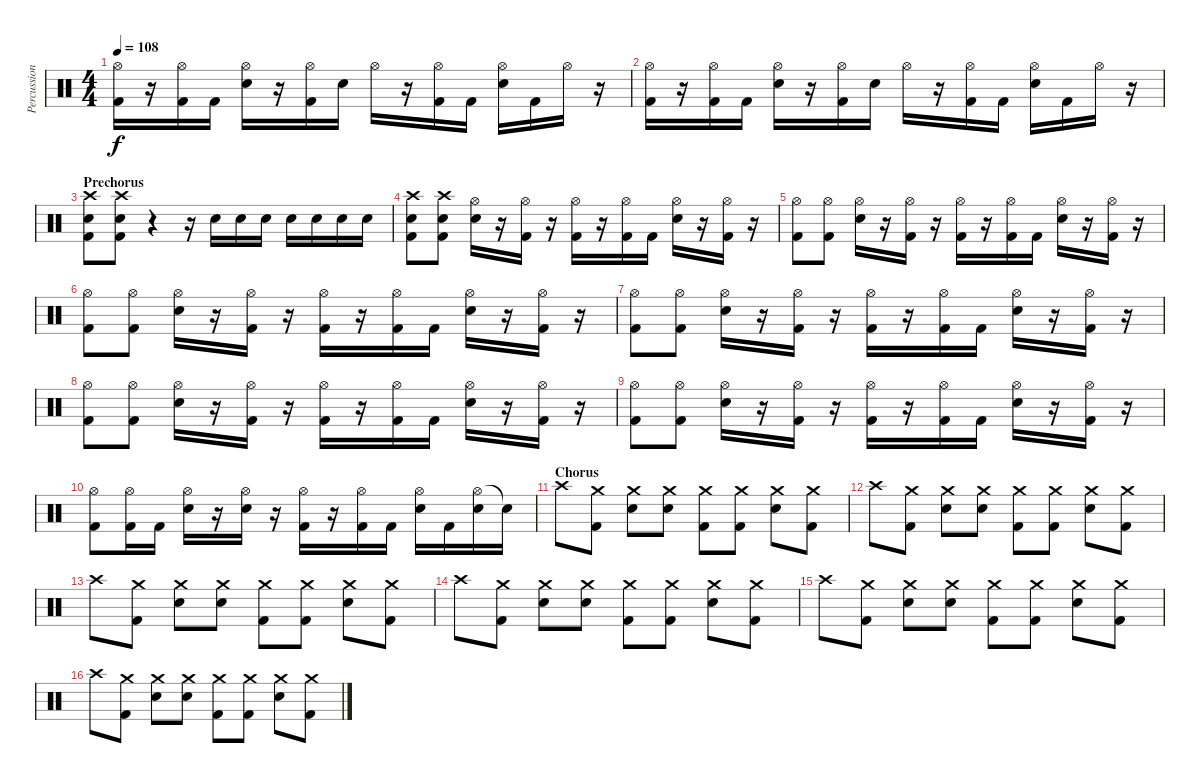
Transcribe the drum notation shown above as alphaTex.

\track ("Percussion" "Percussion") {instrument percussion}
\staff {score}
\articulation defaults
\ts (4 4)
\tempo 108
\clef neutral
\ks c
("Hi-Hat (open)" "Kick (hit) 2").16{dy f} r.16 ("Hi-Hat (open)" "Kick (hit) 2").16 "Kick (hit) 2".16 ("Hi-Hat (open)" "Snare (hit) 2").16 r.16 ("Hi-Hat (open)" "Kick (hit) 2").16 "Snare (hit) 2".16 "Hi-Hat (open)".16 r.16 ("Hi-Hat (open)" "Kick (hit) 2").16 "Kick (hit) 2".16 ("Hi-Hat (open)" "Snare (hit) 2").16 "Kick (hit) 2".16 "Hi-Hat (open)".16 r.16 |
("Hi-Hat (open)" "Kick (hit) 2").16 r.16 ("Hi-Hat (open)" "Kick (hit) 2").16 "Kick (hit) 2".16 ("Hi-Hat (open)" "Snare (hit) 2").16 r.16 ("Hi-Hat (open)" "Kick (hit) 2").16 "Snare (hit) 2".16 "Hi-Hat (open)".16 r.16 ("Hi-Hat (open)" "Kick (hit) 2").16 "Kick (hit) 2".16 ("Hi-Hat (open)" "Snare (hit) 2").16 "Kick (hit) 2".16 "Hi-Hat (open)".16 r.16 |
\section ("" "Prechorus")
("Crash high (hit)" "Kick (hit) 2" "Snare (hit) 2").8 ("Crash high (hit)" "Kick (hit) 2" "Snare (hit) 2").8 r.4 r.16 "Snare (hit) 2".16 "Snare (hit) 2".16 "Snare (hit) 2".16 "Snare (hit) 2".16 "Snare (hit) 2".16 "Snare (hit) 2".16 "Snare (hit) 2".16 |
("Crash high (hit)" "Kick (hit) 2" "Snare (hit) 2").8 ("Crash high (hit)" "Kick (hit) 2" "Snare (hit) 2").8 ("Hi-Hat (open)" "Snare (hit) 2").16 r.16 ("Hi-Hat (open)" "Kick (hit) 2").16 r.16 ("Hi-Hat (open)" "Kick (hit) 2").16 r.16 ("Hi-Hat (open)" "Kick (hit) 2").16 "Kick (hit) 2".16 ("Hi-Hat (open)" "Snare (hit) 2").16 r.16 ("Hi-Hat (open)" "Kick (hit) 2").16 r.16 |
("Hi-Hat (open)" "Kick (hit) 2").8 ("Hi-Hat (open)" "Kick (hit) 2").8 ("Hi-Hat (open)" "Snare (hit) 2").16 r.16 ("Hi-Hat (open)" "Kick (hit) 2").16 r.16 ("Hi-Hat (open)" "Kick (hit) 2").16 r.16 ("Hi-Hat (open)" "Kick (hit) 2").16 "Kick (hit) 2".16 ("Hi-Hat (open)" "Snare (hit) 2").16 r.16 ("Hi-Hat (open)" "Kick (hit) 2").16 r.16 |
("Hi-Hat (open)" "Kick (hit) 2").8 ("Hi-Hat (open)" "Kick (hit) 2").8 ("Hi-Hat (open)" "Snare (hit) 2").16 r.16 ("Hi-Hat (open)" "Kick (hit) 2").16 r.16 ("Hi-Hat (open)" "Kick (hit) 2").16 r.16 ("Hi-Hat (open)" "Kick (hit) 2").16 "Kick (hit) 2".16 ("Hi-Hat (open)" "Snare (hit) 2").16 r.16 ("Hi-Hat (open)" "Kick (hit) 2").16 r.16 |
("Hi-Hat (open)" "Kick (hit) 2").8 ("Hi-Hat (open)" "Kick (hit) 2").8 ("Hi-Hat (open)" "Snare (hit) 2").16 r.16 ("Hi-Hat (open)" "Kick (hit) 2").16 r.16 ("Hi-Hat (open)" "Kick (hit) 2").16 r.16 ("Hi-Hat (open)" "Kick (hit) 2").16 "Kick (hit) 2".16 ("Hi-Hat (open)" "Snare (hit) 2").16 r.16 ("Hi-Hat (open)" "Kick (hit) 2").16 r.16 |
("Hi-Hat (open)" "Kick (hit) 2").8 ("Hi-Hat (open)" "Kick (hit) 2").8 ("Hi-Hat (open)" "Snare (hit) 2").16 r.16 ("Hi-Hat (open)" "Kick (hit) 2").16 r.16 ("Hi-Hat (open)" "Kick (hit) 2").16 r.16 ("Hi-Hat (open)" "Kick (hit) 2").16 "Kick (hit) 2".16 ("Hi-Hat (open)" "Snare (hit) 2").16 r.16 ("Hi-Hat (open)" "Kick (hit) 2").16 r.16 |
("Hi-Hat (open)" "Kick (hit) 2").8 ("Hi-Hat (open)" "Kick (hit) 2").8 ("Hi-Hat (open)" "Snare (hit) 2").16 r.16 ("Hi-Hat (open)" "Kick (hit) 2").16 r.16 ("Hi-Hat (open)" "Kick (hit) 2").16 r.16 ("Hi-Hat (open)" "Kick (hit) 2").16 "Kick (hit) 2".16 ("Hi-Hat (open)" "Snare (hit) 2").16 r.16 ("Hi-Hat (open)" "Kick (hit) 2").16 r.16 |
("Hi-Hat (open)" "Kick (hit) 2").8 ("Hi-Hat (open)" "Kick (hit) 2").16 "Kick (hit) 2".16 ("Hi-Hat (open)" "Snare (hit) 2").16 r.16 ("Hi-Hat (open)" "Snare (hit) 2").16 r.16 ("Hi-Hat (open)" "Kick (hit) 2").16 r.16 ("Hi-Hat (open)" "Kick (hit) 2").16 "Kick (hit) 2".16 ("Hi-Hat (open)" "Snare (hit) 2").16 "Kick (hit) 2".16 ("Hi-Hat (open)" "Snare (hit) 2").16 "Snare (hit)"{t}.16 |
\section ("" "Chorus")
"Crash high (hit)".8 ("Crash medium (hit)" "Kick (hit) 2").8 ("Crash medium (hit)" "Snare (hit) 2").8 ("Crash medium (hit)" "Snare (hit) 2").8 ("Crash medium (hit)" "Kick (hit) 2").8 ("Crash medium (hit)" "Kick (hit) 2").8 ("Crash medium (hit)" "Snare (hit) 2").8 ("Crash medium (hit)" "Kick (hit) 2").8 |
"Crash high (hit)".8 ("Crash medium (hit)" "Kick (hit) 2").8 ("Crash medium (hit)" "Snare (hit) 2").8 ("Crash medium (hit)" "Snare (hit) 2").8 ("Crash medium (hit)" "Kick (hit) 2").8 ("Crash medium (hit)" "Kick (hit) 2").8 ("Crash medium (hit)" "Snare (hit) 2").8 ("Crash medium (hit)" "Kick (hit) 2").8 |
"Crash high (hit)".8 ("Crash medium (hit)" "Kick (hit) 2").8 ("Crash medium (hit)" "Snare (hit) 2").8 ("Crash medium (hit)" "Snare (hit) 2").8 ("Crash medium (hit)" "Kick (hit) 2").8 ("Crash medium (hit)" "Kick (hit) 2").8 ("Crash medium (hit)" "Snare (hit) 2").8 ("Crash medium (hit)" "Kick (hit) 2").8 |
"Crash high (hit)".8 ("Crash medium (hit)" "Kick (hit) 2").8 ("Crash medium (hit)" "Snare (hit) 2").8 ("Crash medium (hit)" "Snare (hit) 2").8 ("Crash medium (hit)" "Kick (hit) 2").8 ("Crash medium (hit)" "Kick (hit) 2").8 ("Crash medium (hit)" "Snare (hit) 2").8 ("Crash medium (hit)" "Kick (hit) 2").8 |
"Crash high (hit)".8 ("Crash medium (hit)" "Kick (hit) 2").8 ("Crash medium (hit)" "Snare (hit) 2").8 ("Crash medium (hit)" "Snare (hit) 2").8 ("Crash medium (hit)" "Kick (hit) 2").8 ("Crash medium (hit)" "Kick (hit) 2").8 ("Crash medium (hit)" "Snare (hit) 2").8 ("Crash medium (hit)" "Kick (hit) 2").8 |
"Crash high (hit)".8 ("Crash medium (hit)" "Kick (hit) 2").8 ("Crash medium (hit)" "Snare (hit) 2").8 ("Crash medium (hit)" "Snare (hit) 2").8 ("Crash medium (hit)" "Kick (hit) 2").8 ("Crash medium (hit)" "Kick (hit) 2").8 ("Crash medium (hit)" "Snare (hit) 2").8 ("Crash medium (hit)" "Kick (hit) 2").8
